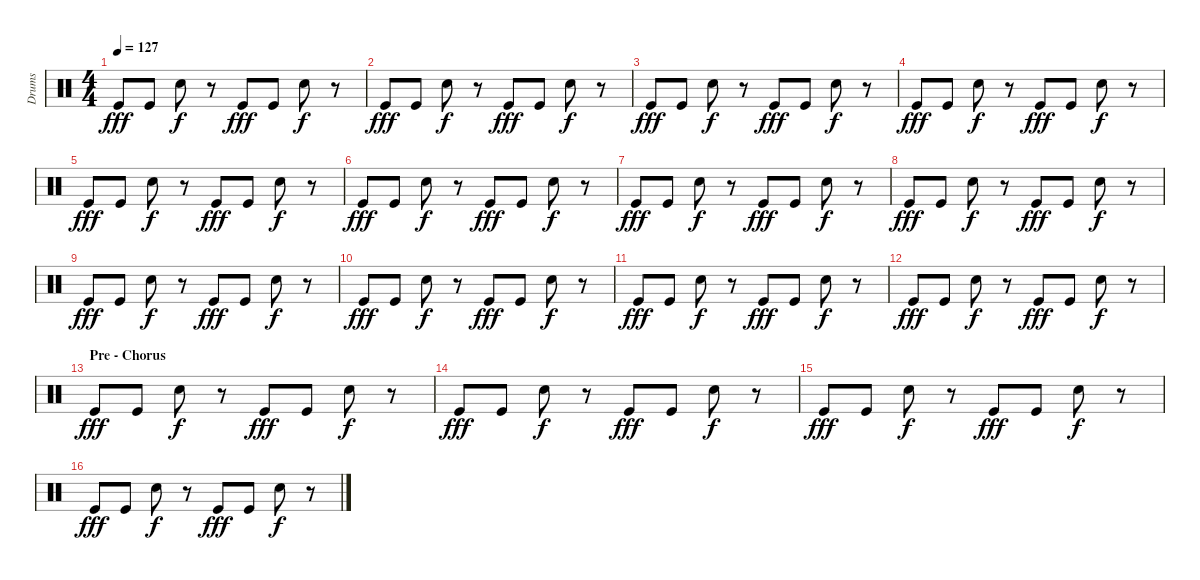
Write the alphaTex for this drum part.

\track ("Drums" "Drums") {instrument percussion}
\staff {score}
\articulation defaults
\ts (4 4)
\tempo 127
\clef neutral
\ks c "Kick (hit)".8{dy fff} "Kick (hit)".8 "Electric Snare (hit)".8{dy f}
r.8 "Kick (hit)".8{dy fff} "Kick (hit)".8 "Electric Snare (hit)".8{dy f} r.8 |
"Kick (hit)".8{dy fff} "Kick (hit)".8 "Electric Snare (hit)".8{dy f} r.8 "Kick (hit)".8{dy fff} "Kick (hit)".8 "Electric Snare (hit)".8{dy f} r.8 |
"Kick (hit)".8{dy fff} "Kick (hit)".8 "Electric Snare (hit)".8{dy f} r.8 "Kick (hit)".8{dy fff} "Kick (hit)".8 "Electric Snare (hit)".8{dy f} r.8 |
"Kick (hit)".8{dy fff} "Kick (hit)".8 "Electric Snare (hit)".8{dy f} r.8 "Kick (hit)".8{dy fff} "Kick (hit)".8 "Electric Snare (hit)".8{dy f} r.8 |
"Kick (hit)".8{dy fff} "Kick (hit)".8 "Electric Snare (hit)".8{dy f} r.8 "Kick (hit)".8{dy fff} "Kick (hit)".8 "Electric Snare (hit)".8{dy f} r.8 |
"Kick (hit)".8{dy fff} "Kick (hit)".8 "Electric Snare (hit)".8{dy f} r.8 "Kick (hit)".8{dy fff} "Kick (hit)".8 "Electric Snare (hit)".8{dy f} r.8 |
"Kick (hit)".8{dy fff} "Kick (hit)".8 "Electric Snare (hit)".8{dy f} r.8 "Kick (hit)".8{dy fff} "Kick (hit)".8 "Electric Snare (hit)".8{dy f} r.8 |
"Kick (hit)".8{dy fff} "Kick (hit)".8 "Electric Snare (hit)".8{dy f} r.8 "Kick (hit)".8{dy fff} "Kick (hit)".8 "Electric Snare (hit)".8{dy f} r.8 |
"Kick (hit)".8{dy fff} "Kick (hit)".8 "Electric Snare (hit)".8{dy f} r.8 "Kick (hit)".8{dy fff} "Kick (hit)".8 "Electric Snare (hit)".8{dy f} r.8 |
"Kick (hit)".8{dy fff} "Kick (hit)".8 "Electric Snare (hit)".8{dy f} r.8 "Kick (hit)".8{dy fff} "Kick (hit)".8 "Electric Snare (hit)".8{dy f} r.8 |
"Kick (hit)".8{dy fff} "Kick (hit)".8 "Electric Snare (hit)".8{dy f} r.8 "Kick (hit)".8{dy fff} "Kick (hit)".8 "Electric Snare (hit)".8{dy f} r.8 |
"Kick (hit)".8{dy fff} "Kick (hit)".8 "Electric Snare (hit)".8{dy f} r.8 "Kick (hit)".8{dy fff} "Kick (hit)".8 "Electric Snare (hit)".8{dy f} r.8 |
\section ("" "Pre - Chorus")
"Kick (hit)".8{dy fff} "Kick (hit)".8 "Electric Snare (hit)".8{dy f} r.8 "Kick (hit)".8{dy fff} "Kick (hit)".8 "Electric Snare (hit)".8{dy f} r.8 |
"Kick (hit)".8{dy fff} "Kick (hit)".8 "Electric Snare (hit)".8{dy f} r.8 "Kick (hit)".8{dy fff} "Kick (hit)".8 "Electric Snare (hit)".8{dy f} r.8 |
"Kick (hit)".8{dy fff} "Kick (hit)".8 "Electric Snare (hit)".8{dy f} r.8 "Kick (hit)".8{dy fff} "Kick (hit)".8 "Electric Snare (hit)".8{dy f} r.8 |
"Kick (hit)".8{dy fff} "Kick (hit)".8 "Electric Snare (hit)".8{dy f} r.8 "Kick (hit)".8{dy fff} "Kick (hit)".8 "Electric Snare (hit)".8{dy f} r.8
